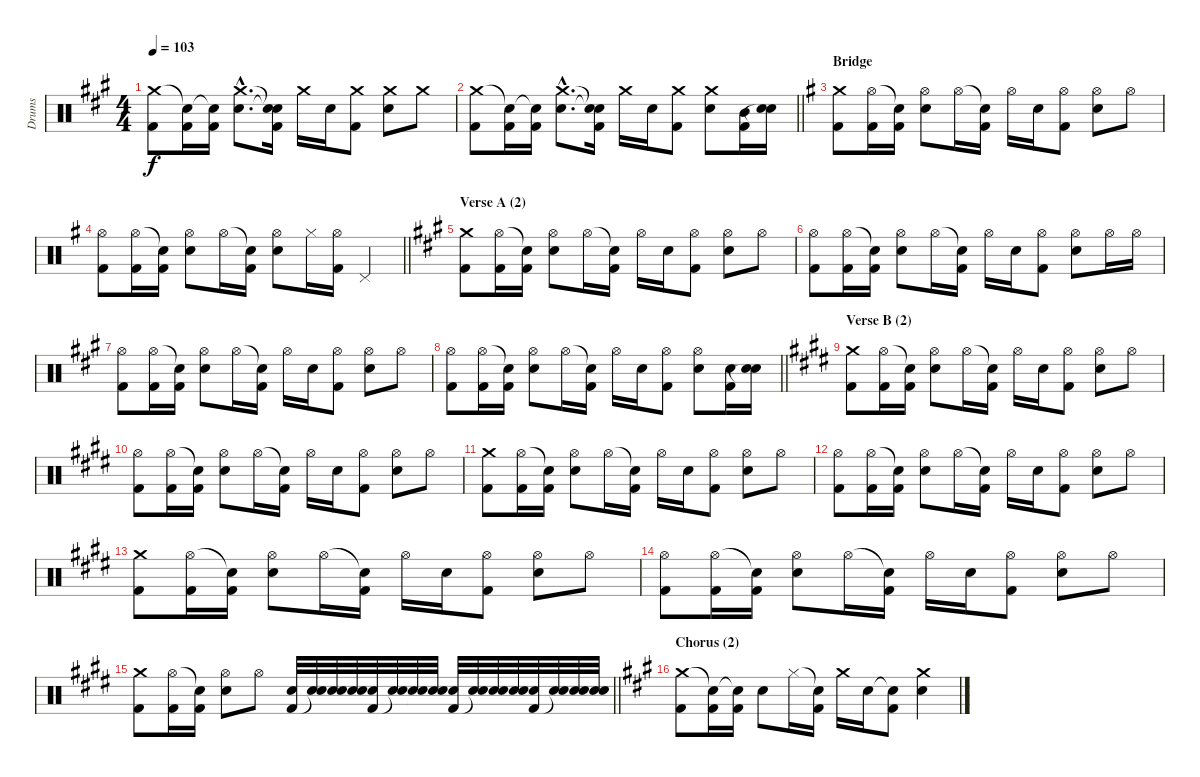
\track ("Drums" "Drums") {instrument percussion}
\staff {score}
\articulation defaults
\ts (4 4)
\tempo 103
\clef neutral
\ks f#minor
("Crash medium (hit)" "Kick (hit) 2").8{dy f} ("Snare (hit)"{t} "Kick (hit) 2").16 ("Snare (hit)"{t} "Kick (hit) 2").16 ("Crash medium (hit)"{hac} "Electric Snare (hit)"{hac}).8{d} ("Snare (hit)"{t} "Snare (hit)"{t} "Kick (hit) 2").16 "Crash medium (hit)".16 "Electric Snare (hit)".16 ("Crash medium (hit)" "Kick (hit) 2").8 ("Crash medium (hit)" "Electric Snare (hit)").8 "Crash medium (hit)".8 |
\barLineRight lightlight
("Crash medium (hit)" "Kick (hit) 2").8 ("Snare (hit)"{t} "Kick (hit) 2").16 ("Snare (hit)"{t} "Kick (hit) 2").16 ("Crash medium (hit)"{hac} "Electric Snare (hit)"{hac}).8{d} ("Snare (hit)"{t} "Snare (hit)"{t} "Kick (hit) 2").16 "Crash medium (hit)".16 "Electric Snare (hit)".16 ("Crash medium (hit)" "Kick (hit) 2").8 ("Crash medium (hit)" "Electric Snare (hit)").8 ("Mid Tom (hit)" "Kick (hit) 2").16 ("Electric Snare (hit)" "Snare (hit)"{t}).16 |
\section ("" "Bridge")
\ks eminor
("Crash medium (hit)" "Kick (hit) 2").8 ("Hi-Hat (open)" "Kick (hit) 2").16 ("Snare (hit)"{t} "Kick (hit) 2").16 ("Hi-Hat (open)" "Electric Snare (hit)").8 "Hi-Hat (open)".16 ("Snare (hit)"{t} "Kick (hit) 2").16 "Hi-Hat (open)".16 "Electric Snare (hit)".16 ("Hi-Hat (open)" "Kick (hit) 2").8 ("Hi-Hat (open)" "Electric Snare (hit)").8 "Hi-Hat (open)".8 |
\barLineRight lightlight
("Hi-Hat (open)" "Kick (hit) 2").8 ("Hi-Hat (open)" "Kick (hit) 2").16 ("Snare (hit)"{t} "Kick (hit) 2").16 ("Hi-Hat (open)" "Electric Snare (hit)").8 "Hi-Hat (open)".16 ("Snare (hit)"{t} "Kick (hit) 2").16 ("Hi-Hat (open)" "Electric Snare (hit)").8 "Hi-Hat (closed)".16 ("Hi-Hat (open)" "Kick (hit) 2").16 "Pedal Hi-Hat (hit)".4 |
\section ("" "Verse A (2)")
\ks f#minor
("Crash medium (hit)" "Kick (hit) 2").8 ("Hi-Hat (open)" "Kick (hit) 2").16 ("Snare (hit)"{t} "Kick (hit) 2").16 ("Hi-Hat (open)" "Electric Snare (hit)").8 "Hi-Hat (open)".16 ("Snare (hit)"{t} "Kick (hit) 2").16 "Hi-Hat (open)".16 "Electric Snare (hit)".16 ("Hi-Hat (open)" "Kick (hit) 2").8 ("Hi-Hat (open)" "Electric Snare (hit)").8 "Hi-Hat (open)".8 |
("Hi-Hat (open)" "Kick (hit) 2").8 ("Hi-Hat (open)" "Kick (hit) 2").16 ("Snare (hit)"{t} "Kick (hit) 2").16 ("Hi-Hat (open)" "Electric Snare (hit)").8 "Hi-Hat (open)".16 ("Snare (hit)"{t} "Kick (hit) 2").16 "Hi-Hat (open)".16 "Electric Snare (hit)".16 ("Hi-Hat (open)" "Kick (hit) 2").8 ("Hi-Hat (open)" "Electric Snare (hit)").8 "Hi-Hat (open)".16 "Hi-Hat (open)".16 |
("Hi-Hat (open)" "Kick (hit) 2").8 ("Hi-Hat (open)" "Kick (hit) 2").16 ("Snare (hit)"{t} "Kick (hit) 2").16 ("Hi-Hat (open)" "Electric Snare (hit)").8 "Hi-Hat (open)".16 ("Snare (hit)"{t} "Kick (hit) 2").16 "Hi-Hat (open)".16 "Electric Snare (hit)".16 ("Hi-Hat (open)" "Kick (hit) 2").8 ("Hi-Hat (open)" "Electric Snare (hit)").8 "Hi-Hat (open)".8 |
\barLineRight lightlight
("Hi-Hat (open)" "Kick (hit) 2").8 ("Hi-Hat (open)" "Kick (hit) 2").16 ("Snare (hit)"{t} "Kick (hit) 2").16 ("Hi-Hat (open)" "Electric Snare (hit)").8 "Hi-Hat (open)".16 ("Snare (hit)"{t} "Kick (hit) 2").16 "Hi-Hat (open)".16 "Electric Snare (hit)".16 ("Hi-Hat (open)" "Kick (hit) 2").8 ("Hi-Hat (open)" "Electric Snare (hit)").8 ("Electric Snare (hit)" "Kick (hit) 2").16 ("Electric Snare (hit)" "Snare (hit)"{t}).16 |
\section ("" "Verse B (2)")
\ks c#minor
("Crash medium (hit)" "Kick (hit) 2").8 ("Hi-Hat (open)" "Kick (hit) 2").16 ("Snare (hit)"{t} "Kick (hit) 2").16 ("Hi-Hat (open)" "Electric Snare (hit)").8 "Hi-Hat (open)".16 ("Snare (hit)"{t} "Kick (hit) 2").16 "Hi-Hat (open)".16 "Electric Snare (hit)".16 ("Hi-Hat (open)" "Kick (hit) 2").8 ("Hi-Hat (open)" "Electric Snare (hit)").8 "Hi-Hat (open)".8 |
("Hi-Hat (open)" "Kick (hit) 2").8 ("Hi-Hat (open)" "Kick (hit) 2").16 ("Snare (hit)"{t} "Kick (hit) 2").16 ("Hi-Hat (open)" "Electric Snare (hit)").8 "Hi-Hat (open)".16 ("Snare (hit)"{t} "Kick (hit) 2").16 "Hi-Hat (open)".16 "Electric Snare (hit)".16 ("Hi-Hat (open)" "Kick (hit) 2").8 ("Hi-Hat (open)" "Electric Snare (hit)").8 "Hi-Hat (open)".8 |
("Crash medium (hit)" "Kick (hit) 2").8 ("Hi-Hat (open)" "Kick (hit) 2").16 ("Snare (hit)"{t} "Kick (hit) 2").16 ("Hi-Hat (open)" "Electric Snare (hit)").8 "Hi-Hat (open)".16 ("Snare (hit)"{t} "Kick (hit) 2").16 "Hi-Hat (open)".16 "Electric Snare (hit)".16 ("Hi-Hat (open)" "Kick (hit) 2").8 ("Hi-Hat (open)" "Electric Snare (hit)").8 "Hi-Hat (open)".8 |
("Hi-Hat (open)" "Kick (hit) 2").8 ("Hi-Hat (open)" "Kick (hit) 2").16 ("Snare (hit)"{t} "Kick (hit) 2").16 ("Hi-Hat (open)" "Electric Snare (hit)").8 "Hi-Hat (open)".16 ("Snare (hit)"{t} "Kick (hit) 2").16 "Hi-Hat (open)".16 "Electric Snare (hit)".16 ("Hi-Hat (open)" "Kick (hit) 2").8 ("Hi-Hat (open)" "Electric Snare (hit)").8 "Hi-Hat (open)".8 |
("Crash medium (hit)" "Kick (hit) 2").8 ("Hi-Hat (open)" "Kick (hit) 2").16 ("Snare (hit)"{t} "Kick (hit) 2").16 ("Hi-Hat (open)" "Electric Snare (hit)").8 "Hi-Hat (open)".16 ("Snare (hit)"{t} "Kick (hit) 2").16 "Hi-Hat (open)".16 "Electric Snare (hit)".16 ("Hi-Hat (open)" "Kick (hit) 2").8 ("Hi-Hat (open)" "Electric Snare (hit)").8 "Hi-Hat (open)".8 |
("Hi-Hat (open)" "Kick (hit) 2").8 ("Hi-Hat (open)" "Kick (hit) 2").16 ("Snare (hit)"{t} "Kick (hit) 2").16 ("Hi-Hat (open)" "Electric Snare (hit)").8 "Hi-Hat (open)".16 ("Snare (hit)"{t} "Kick (hit) 2").16 "Hi-Hat (open)".16 "Electric Snare (hit)".16 ("Hi-Hat (open)" "Kick (hit) 2").8 ("Hi-Hat (open)" "Electric Snare (hit)").8 "Hi-Hat (open)".8 |
\barLineRight lightlight
("Crash medium (hit)" "Kick (hit) 2").8 ("Hi-Hat (open)" "Kick (hit) 2").16 ("Snare (hit)"{t} "Kick (hit) 2").16 ("Hi-Hat (open)" "Electric Snare (hit)").8 "Hi-Hat (open)".8 ("Electric Snare (hit)" "Kick (hit) 2").32 ("Electric Snare (hit)" "Snare (hit)"{t}).32 ("Electric Snare (hit)" "Snare (hit)"{t}).32 ("Electric Snare (hit)" "Snare (hit)"{t}).32 ("Electric Snare (hit)" "Kick (hit) 2").32 ("Electric Snare (hit)" "Snare (hit)"{t}).32 ("Electric Snare (hit)" "Snare (hit)"{t}).32 ("Electric Snare (hit)" "Snare (hit)"{t}).32 ("Electric Snare (hit)" "Kick (hit) 2").32 ("Electric Snare (hit)" "Snare (hit)"{t}).32 ("Electric Snare (hit)" "Snare (hit)"{t}).32 ("Electric Snare (hit)" "Snare (hit)"{t}).32 ("Electric Snare (hit)" "Kick (hit) 2").32 ("Electric Snare (hit)" "Snare (hit)"{t}).32 ("Electric Snare (hit)" "Snare (hit)"{t}).32 ("Electric Snare (hit)" "Snare (hit)"{t}).32 |
\section ("" "Chorus (2)")
\ks f#minor
("Crash medium (hit)" "Kick (hit) 2").8 ("Snare (hit)"{t} "Kick (hit) 2").16 ("Snare (hit)"{t} "Kick (hit) 2").16 "Electric Snare (hit)".8 "Hi-Hat (closed)".16 ("Snare (hit)"{t} "Kick (hit) 2").16 "Crash medium (hit)".16 "Electric Snare (hit)".16 ("Snare (hit)"{t} "Kick (hit) 2").8 ("Crash medium (hit)" "Electric Snare (hit)").4
